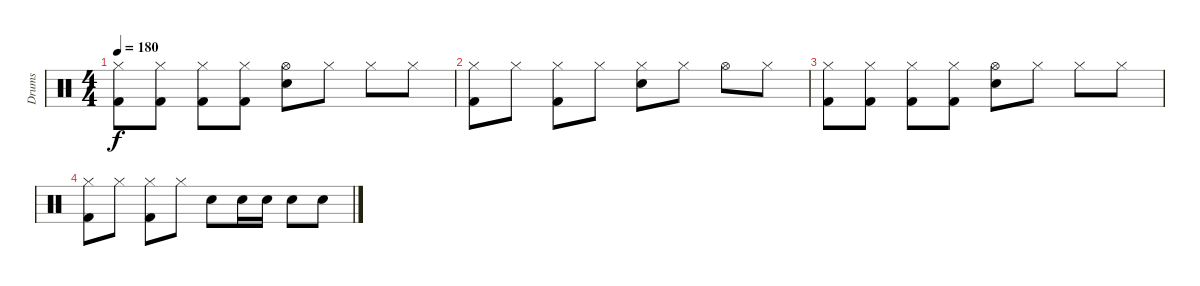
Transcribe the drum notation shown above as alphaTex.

\track ("Drums" "Drums") {instrument percussion}
\staff {score}
\articulation defaults
\ts (4 4)
\tempo 180
\clef neutral
\ks c
("Hi-Hat (closed)" "Kick (hit) 2").8{dy f} ("Hi-Hat (closed)" "Kick (hit) 2").8 ("Hi-Hat (closed)" "Kick (hit) 2").8 ("Hi-Hat (closed)" "Kick (hit) 2").8 ("Hi-Hat (open)" "Electric Snare (hit)").8 "Hi-Hat (closed)".8 "Hi-Hat (closed)".8 "Hi-Hat (closed)".8 |
("Hi-Hat (closed)" "Kick (hit) 2").8 "Hi-Hat (closed)".8 ("Hi-Hat (closed)" "Kick (hit) 2").8 "Hi-Hat (closed)".8 ("Hi-Hat (closed)" "Electric Snare (hit)").8 "Hi-Hat (closed)".8 "Hi-Hat (open)".8 "Hi-Hat (closed)".8 |
("Hi-Hat (closed)" "Kick (hit) 2").8 ("Hi-Hat (closed)" "Kick (hit) 2").8 ("Hi-Hat (closed)" "Kick (hit) 2").8 ("Hi-Hat (closed)" "Kick (hit) 2").8 ("Hi-Hat (open)" "Electric Snare (hit)").8 "Hi-Hat (closed)".8 "Hi-Hat (closed)".8 "Hi-Hat (closed)".8 |
("Hi-Hat (closed)" "Kick (hit) 2").8 "Hi-Hat (closed)".8 ("Hi-Hat (closed)" "Kick (hit) 2").8 "Hi-Hat (closed)".8 "Snare (hit) 2".8 "Snare (hit) 2".16 "Snare (hit) 2".16 "Snare (hit) 2".8 "Snare (hit) 2".8
